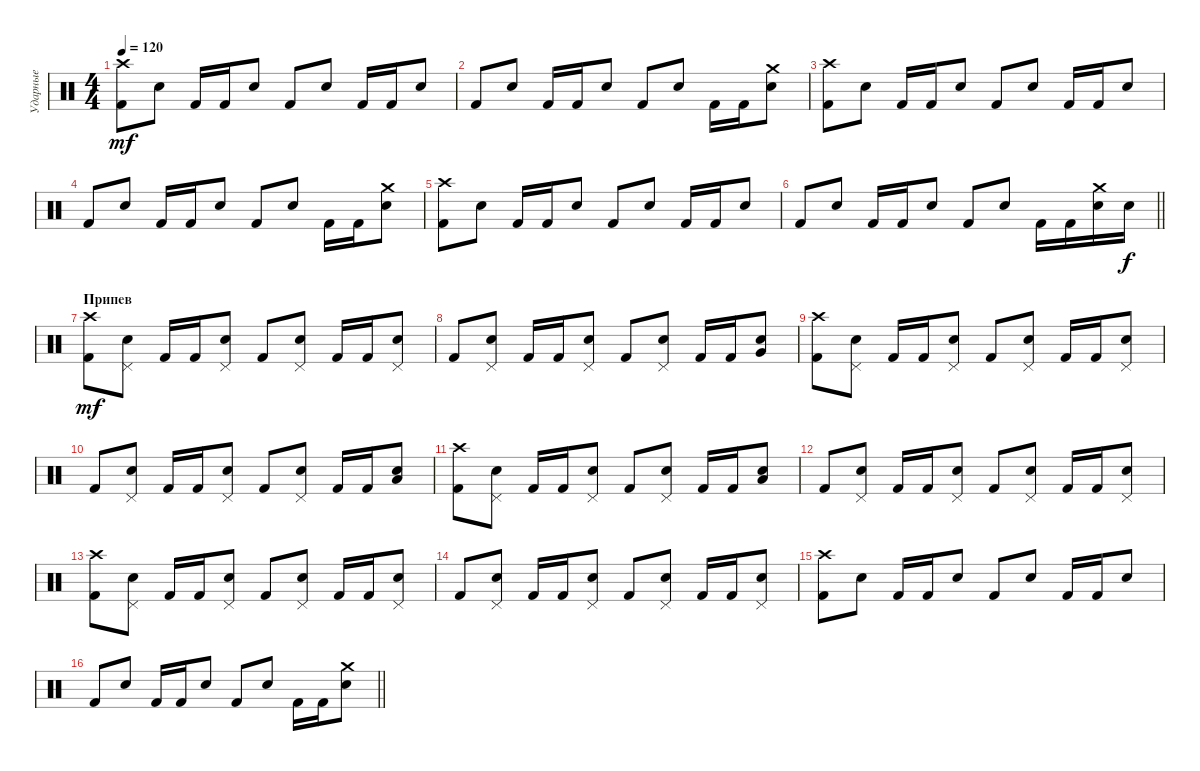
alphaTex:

\track ("Ударные" "Ударные") {instrument percussion}
\staff {score}
\articulation defaults
\ts (4 4)
\tempo 120
\clef neutral
\ks c
("Crash high (hit)" "Kick (hit) 2").8{dy mf} "Electric Snare (hit)".8 "Kick (hit) 2".16 "Kick (hit) 2".16 "Electric Snare (hit)".8 "Kick (hit) 2".8 "Electric Snare (hit)".8 "Kick (hit) 2".16 "Kick (hit) 2".16 "Electric Snare (hit)".8 |
"Kick (hit) 2".8 "Electric Snare (hit)".8 "Kick (hit) 2".16 "Kick (hit) 2".16 "Electric Snare (hit)".8 "Kick (hit) 2".8 "Electric Snare (hit)".8 "Kick (hit) 2".16 "Kick (hit) 2".16 ("Crash medium (hit)" "Electric Snare (hit)").8 |
("Crash high (hit)" "Kick (hit) 2").8 "Electric Snare (hit)".8 "Kick (hit) 2".16 "Kick (hit) 2".16 "Electric Snare (hit)".8 "Kick (hit) 2".8 "Electric Snare (hit)".8 "Kick (hit) 2".16 "Kick (hit) 2".16 "Electric Snare (hit)".8 |
"Kick (hit) 2".8 "Electric Snare (hit)".8 "Kick (hit) 2".16 "Kick (hit) 2".16 "Electric Snare (hit)".8 "Kick (hit) 2".8 "Electric Snare (hit)".8 "Kick (hit) 2".16 "Kick (hit) 2".16 ("Crash medium (hit)" "Electric Snare (hit)").8 |
("Crash high (hit)" "Kick (hit) 2").8 "Electric Snare (hit)".8 "Kick (hit) 2".16 "Kick (hit) 2".16 "Electric Snare (hit)".8 "Kick (hit) 2".8 "Electric Snare (hit)".8 "Kick (hit) 2".16 "Kick (hit) 2".16 "Electric Snare (hit)".8 |
\barLineRight lightlight "Kick (hit) 2".8 "Electric Snare (hit)".8 "Kick (hit) 2".16 "Kick (hit) 2".16 "Electric Snare (hit)".8 "Kick (hit) 2".8 "Electric Snare (hit)".8 "Kick (hit) 2".16 "Kick (hit) 2".16
("Crash medium (hit)" "Electric Snare (hit)").16 "Electric Snare (hit)".16{dy f} |
\section ("" "Припев")
("Crash high (hit)" "Kick (hit) 2").8{dy mf} ("Pedal Hi-Hat (hit)" "Electric Snare (hit)").8 "Kick (hit) 2".16 "Kick (hit) 2".16 ("Pedal Hi-Hat (hit)" "Electric Snare (hit)").8 "Kick (hit) 2".8 ("Pedal Hi-Hat (hit)" "Electric Snare (hit)").8 "Kick (hit) 2".16 "Kick (hit) 2".16 ("Pedal Hi-Hat (hit)" "Electric Snare (hit)").8 |
"Kick (hit) 2".8 ("Pedal Hi-Hat (hit)" "Electric Snare (hit)").8 "Kick (hit) 2".16 "Kick (hit) 2".16 ("Pedal Hi-Hat (hit)" "Electric Snare (hit)").8 "Kick (hit) 2".8 ("Pedal Hi-Hat (hit)" "Electric Snare (hit)").8 "Kick (hit) 2".16 "Kick (hit) 2".16 ("Very Low Tom (hit)" "Electric Snare (hit)").8 |
("Crash high (hit)" "Kick (hit) 2").8 ("Pedal Hi-Hat (hit)" "Electric Snare (hit)").8 "Kick (hit) 2".16 "Kick (hit) 2".16 ("Pedal Hi-Hat (hit)" "Electric Snare (hit)").8 "Kick (hit) 2".8 ("Pedal Hi-Hat (hit)" "Electric Snare (hit)").8 "Kick (hit) 2".16 "Kick (hit) 2".16 ("Pedal Hi-Hat (hit)" "Electric Snare (hit)").8 |
"Kick (hit) 2".8 ("Pedal Hi-Hat (hit)" "Electric Snare (hit)").8 "Kick (hit) 2".16 "Kick (hit) 2".16 ("Pedal Hi-Hat (hit)" "Electric Snare (hit)").8 "Kick (hit) 2".8 ("Pedal Hi-Hat (hit)" "Electric Snare (hit)").8 "Kick (hit) 2".16 "Kick (hit) 2".16 ("Low Tom (hit)" "Electric Snare (hit)").8 |
("Crash high (hit)" "Kick (hit) 2").8 ("Pedal Hi-Hat (hit)" "Electric Snare (hit)").8 "Kick (hit) 2".16 "Kick (hit) 2".16 ("Pedal Hi-Hat (hit)" "Electric Snare (hit)").8 "Kick (hit) 2".8 ("Pedal Hi-Hat (hit)" "Electric Snare (hit)").8 "Kick (hit) 2".16 "Kick (hit) 2".16 ("Low Floor Tom (hit)" "Electric Snare (hit)").8 |
"Kick (hit) 2".8 ("Pedal Hi-Hat (hit)" "Electric Snare (hit)").8 "Kick (hit) 2".16 "Kick (hit) 2".16 ("Pedal Hi-Hat (hit)" "Electric Snare (hit)").8 "Kick (hit) 2".8 ("Pedal Hi-Hat (hit)" "Electric Snare (hit)").8 "Kick (hit) 2".16 "Kick (hit) 2".16 ("Pedal Hi-Hat (hit)" "Electric Snare (hit)").8 |
("Crash high (hit)" "Kick (hit) 2").8 ("Pedal Hi-Hat (hit)" "Electric Snare (hit)").8 "Kick (hit) 2".16 "Kick (hit) 2".16 ("Pedal Hi-Hat (hit)" "Electric Snare (hit)").8 "Kick (hit) 2".8 ("Pedal Hi-Hat (hit)" "Electric Snare (hit)").8 "Kick (hit) 2".16 "Kick (hit) 2".16 ("Pedal Hi-Hat (hit)" "Electric Snare (hit)").8 |
"Kick (hit) 2".8 ("Pedal Hi-Hat (hit)" "Electric Snare (hit)").8 "Kick (hit) 2".16 "Kick (hit) 2".16 ("Pedal Hi-Hat (hit)" "Electric Snare (hit)").8 "Kick (hit) 2".8 ("Pedal Hi-Hat (hit)" "Electric Snare (hit)").8 "Kick (hit) 2".16 "Kick (hit) 2".16 ("Pedal Hi-Hat (hit)" "Electric Snare (hit)").8 |
("Crash high (hit)" "Kick (hit) 2").8 "Electric Snare (hit)".8 "Kick (hit) 2".16 "Kick (hit) 2".16 "Electric Snare (hit)".8 "Kick (hit) 2".8 "Electric Snare (hit)".8 "Kick (hit) 2".16 "Kick (hit) 2".16 "Electric Snare (hit)".8 |
\barLineRight lightlight "Kick (hit) 2".8 "Electric Snare (hit)".8 "Kick (hit) 2".16 "Kick (hit) 2".16 "Electric Snare (hit)".8 "Kick (hit) 2".8 "Electric Snare (hit)".8 "Kick (hit) 2".16 "Kick (hit) 2".16
("Crash medium (hit)" "Electric Snare (hit)").8
